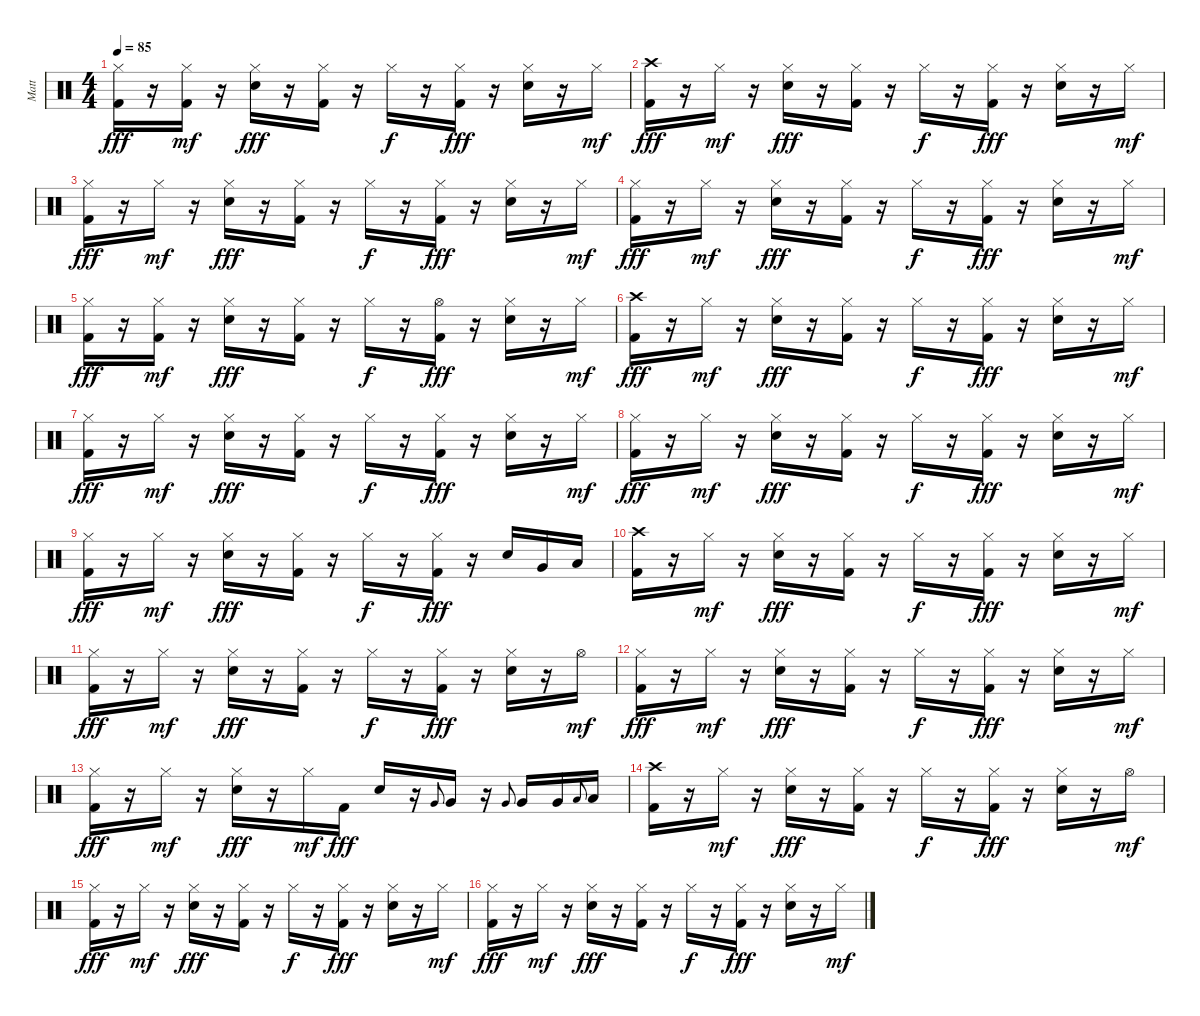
\track ("Matt" "Matt") {instrument percussion}
\staff {score}
\articulation defaults
\ts (4 4)
\tempo 85
\clef neutral
\ks c
("Hi-Hat (closed)" "Kick (hit) 2").16{dy fff} r.16 ("Hi-Hat (closed)" "Kick (hit) 2").16{dy mf} r.16 ("Hi-Hat (closed)" "Electric Snare (hit)").16{dy fff} r.16 ("Hi-Hat (closed)" "Kick (hit) 2").16 r.16 "Hi-Hat (closed)".16{dy f} r.16 ("Hi-Hat (closed)" "Kick (hit) 2").16{dy fff} r.16 ("Hi-Hat (closed)" "Electric Snare (hit)").16 r.16 "Hi-Hat (closed)".16{dy mf} |
("Crash high (hit)" "Kick (hit) 2").16{dy fff} r.16 "Hi-Hat (closed)".16{dy mf} r.16 ("Hi-Hat (closed)" "Electric Snare (hit)").16{dy fff} r.16 ("Hi-Hat (closed)" "Kick (hit) 2").16 r.16 "Hi-Hat (closed)".16{dy f} r.16 ("Hi-Hat (closed)" "Kick (hit) 2").16{dy fff} r.16 ("Hi-Hat (closed)" "Electric Snare (hit)").16 r.16 "Hi-Hat (closed)".16{dy mf} |
("Hi-Hat (closed)" "Kick (hit) 2").16{dy fff} r.16 "Hi-Hat (closed)".16{dy mf} r.16 ("Hi-Hat (closed)" "Electric Snare (hit)").16{dy fff} r.16 ("Hi-Hat (closed)" "Kick (hit) 2").16 r.16 "Hi-Hat (closed)".16{dy f} r.16 ("Hi-Hat (closed)" "Kick (hit) 2").16{dy fff} r.16 ("Hi-Hat (closed)" "Electric Snare (hit)").16 r.16 "Hi-Hat (closed)".16{dy mf} |
("Hi-Hat (closed)" "Kick (hit) 2").16{dy fff} r.16 "Hi-Hat (closed)".16{dy mf} r.16 ("Hi-Hat (closed)" "Electric Snare (hit)").16{dy fff} r.16 ("Hi-Hat (closed)" "Kick (hit) 2").16 r.16 "Hi-Hat (closed)".16{dy f} r.16 ("Hi-Hat (closed)" "Kick (hit) 2").16{dy fff} r.16 ("Hi-Hat (closed)" "Electric Snare (hit)").16 r.16 "Hi-Hat (closed)".16{dy mf} |
("Hi-Hat (closed)" "Kick (hit) 2").16{dy fff} r.16 ("Hi-Hat (closed)" "Kick (hit) 2").16{dy mf} r.16 ("Hi-Hat (closed)" "Electric Snare (hit)").16{dy fff} r.16 ("Hi-Hat (closed)" "Kick (hit) 2").16 r.16 "Hi-Hat (closed)".16{dy f} r.16 ("Hi-Hat (open)" "Kick (hit) 2").16{dy fff} r.16 ("Hi-Hat (closed)" "Electric Snare (hit)").16 r.16 "Hi-Hat (closed)".16{dy mf} |
("Crash high (hit)" "Kick (hit) 2").16{dy fff} r.16 "Hi-Hat (closed)".16{dy mf} r.16 ("Hi-Hat (closed)" "Electric Snare (hit)").16{dy fff} r.16 ("Hi-Hat (closed)" "Kick (hit) 2").16 r.16 "Hi-Hat (closed)".16{dy f} r.16 ("Hi-Hat (closed)" "Kick (hit) 2").16{dy fff} r.16 ("Hi-Hat (closed)" "Electric Snare (hit)").16 r.16 "Hi-Hat (closed)".16{dy mf} |
("Hi-Hat (closed)" "Kick (hit) 2").16{dy fff} r.16 "Hi-Hat (closed)".16{dy mf} r.16 ("Hi-Hat (closed)" "Electric Snare (hit)").16{dy fff} r.16 ("Hi-Hat (closed)" "Kick (hit) 2").16 r.16 "Hi-Hat (closed)".16{dy f} r.16 ("Hi-Hat (closed)" "Kick (hit) 2").16{dy fff} r.16 ("Hi-Hat (closed)" "Electric Snare (hit)").16 r.16 "Hi-Hat (closed)".16{dy mf} |
("Hi-Hat (closed)" "Kick (hit) 2").16{dy fff} r.16 "Hi-Hat (closed)".16{dy mf} r.16 ("Hi-Hat (closed)" "Electric Snare (hit)").16{dy fff} r.16 ("Hi-Hat (closed)" "Kick (hit) 2").16 r.16 "Hi-Hat (closed)".16{dy f} r.16 ("Hi-Hat (closed)" "Kick (hit) 2").16{dy fff} r.16 ("Hi-Hat (closed)" "Electric Snare (hit)").16 r.16 "Hi-Hat (closed)".16{dy mf} |
("Hi-Hat (closed)" "Kick (hit) 2").16{dy fff} r.16 "Hi-Hat (closed)".16{dy mf} r.16 ("Hi-Hat (closed)" "Electric Snare (hit)").16{dy fff} r.16 ("Hi-Hat (closed)" "Kick (hit) 2").16 r.16 "Hi-Hat (closed)".16{dy f} r.16 ("Hi-Hat (closed)" "Kick (hit) 2").16{dy fff} r.16 "Electric Snare (hit)".16 "Very Low Tom (hit)".16 "Low Floor Tom (hit)".16 |
("Crash high (hit)" "Kick (hit) 2").16 r.16 "Hi-Hat (closed)".16{dy mf} r.16 ("Hi-Hat (closed)" "Electric Snare (hit)").16{dy fff} r.16 ("Hi-Hat (closed)" "Kick (hit) 2").16 r.16 "Hi-Hat (closed)".16{dy f} r.16 ("Hi-Hat (closed)" "Kick (hit) 2").16{dy fff} r.16 ("Hi-Hat (closed)" "Electric Snare (hit)").16 r.16 "Hi-Hat (closed)".16{dy mf} |
("Hi-Hat (closed)" "Kick (hit) 2").16{dy fff} r.16 "Hi-Hat (closed)".16{dy mf} r.16 ("Hi-Hat (closed)" "Electric Snare (hit)").16{dy fff} r.16 ("Hi-Hat (closed)" "Kick (hit) 2").16 r.16 "Hi-Hat (closed)".16{dy f} r.16 ("Hi-Hat (closed)" "Kick (hit) 2").16{dy fff} r.16 ("Hi-Hat (closed)" "Electric Snare (hit)").16 r.16 "Hi-Hat (open)".16{dy mf} |
("Hi-Hat (closed)" "Kick (hit) 2").16{dy fff} r.16 "Hi-Hat (closed)".16{dy mf} r.16 ("Hi-Hat (closed)" "Electric Snare (hit)").16{dy fff} r.16 ("Hi-Hat (closed)" "Kick (hit) 2").16 r.16 "Hi-Hat (closed)".16{dy f} r.16 ("Hi-Hat (closed)" "Kick (hit) 2").16{dy fff} r.16 ("Hi-Hat (closed)" "Electric Snare (hit)").16 r.16 "Hi-Hat (closed)".16{dy mf} |
("Hi-Hat (closed)" "Kick (hit) 2").16{dy fff} r.16 "Hi-Hat (closed)".16{dy mf} r.16 ("Hi-Hat (closed)" "Electric Snare (hit)").16{dy fff} r.16 "Hi-Hat (closed)".16{dy mf} "Kick (hit) 2".16{dy fff} "Electric Snare (hit)".16 r.16 "Very Low Tom (hit)".8{gr onbeat} "Very Low Tom (hit)".16 r.16 "Very Low Tom (hit)".8{gr onbeat} "Very Low Tom (hit)".16 "Very Low Tom (hit)".16 "Low Floor Tom (hit)".8{gr onbeat} "Low Floor Tom (hit)".16 |
("Crash high (hit)" "Kick (hit) 2").16 r.16 "Hi-Hat (closed)".16{dy mf} r.16 ("Hi-Hat (closed)" "Electric Snare (hit)").16{dy fff} r.16 ("Hi-Hat (closed)" "Kick (hit) 2").16 r.16 "Hi-Hat (closed)".16{dy f} r.16 ("Hi-Hat (closed)" "Kick (hit) 2").16{dy fff} r.16 ("Hi-Hat (closed)" "Electric Snare (hit)").16 r.16 "Hi-Hat (open)".16{dy mf} |
("Hi-Hat (closed)" "Kick (hit) 2").16{dy fff} r.16 "Hi-Hat (closed)".16{dy mf} r.16 ("Hi-Hat (closed)" "Electric Snare (hit)").16{dy fff} r.16 ("Hi-Hat (closed)" "Kick (hit) 2").16 r.16 "Hi-Hat (closed)".16{dy f} r.16 ("Hi-Hat (closed)" "Kick (hit) 2").16{dy fff} r.16 ("Hi-Hat (closed)" "Electric Snare (hit)").16 r.16 "Hi-Hat (closed)".16{dy mf} |
("Hi-Hat (closed)" "Kick (hit) 2").16{dy fff} r.16 "Hi-Hat (closed)".16{dy mf} r.16 ("Hi-Hat (closed)" "Electric Snare (hit)").16{dy fff} r.16 ("Hi-Hat (closed)" "Kick (hit) 2").16 r.16 "Hi-Hat (closed)".16{dy f} r.16 ("Hi-Hat (closed)" "Kick (hit) 2").16{dy fff} r.16 ("Hi-Hat (closed)" "Electric Snare (hit)").16 r.16 "Hi-Hat (closed)".16{dy mf}
